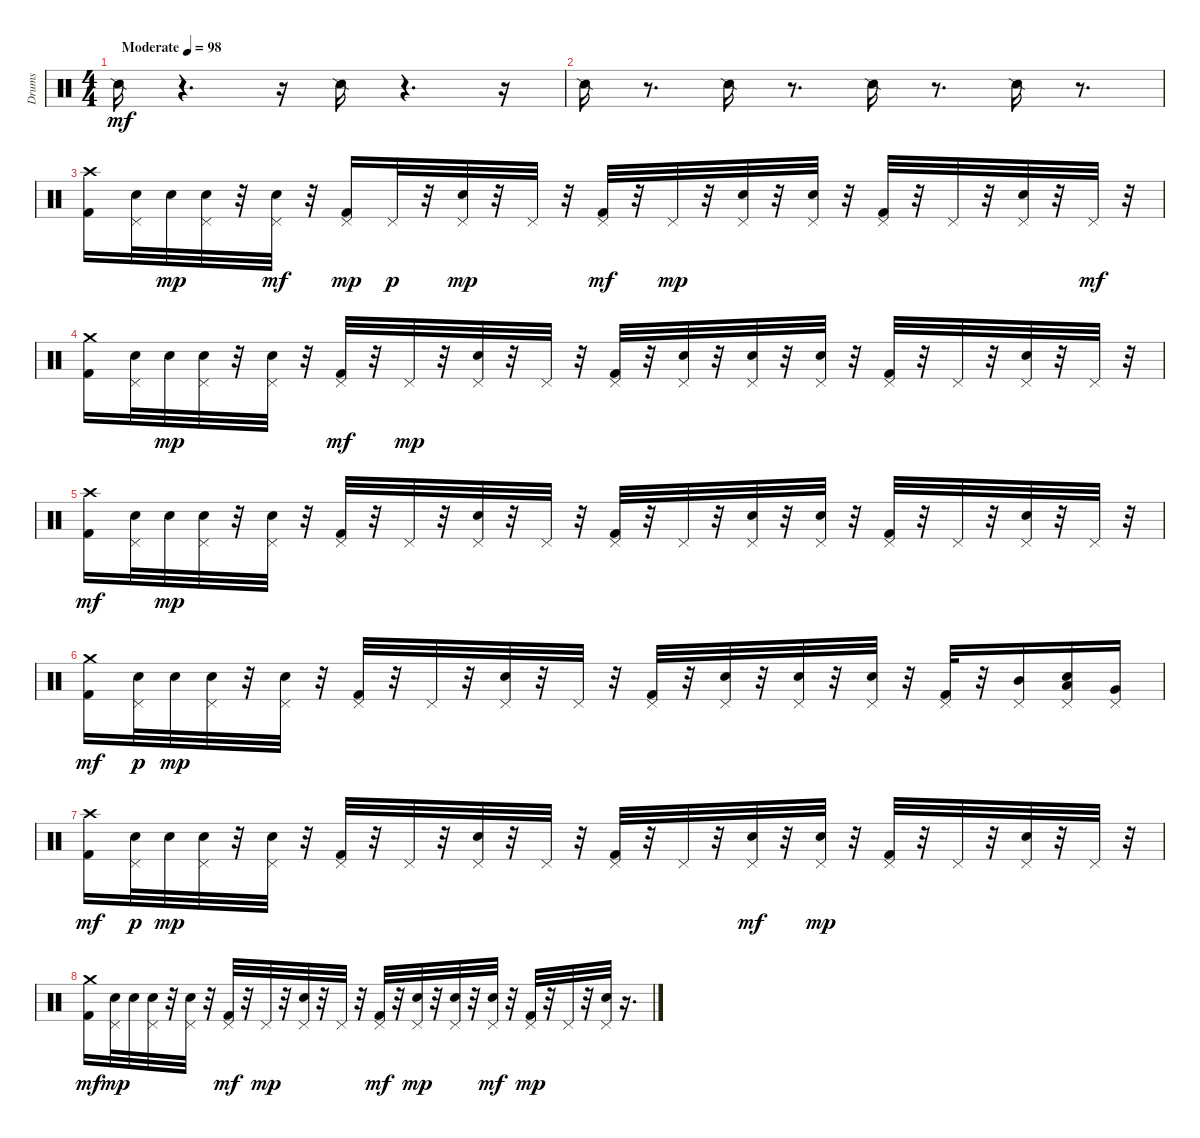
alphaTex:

\track ("Drums" "Drums") {instrument percussion}
\staff {score}
\articulation defaults
\ts (4 4)
\tempo (98 "Moderate")
\clef neutral
\ks c "Snare (side stick) 2".16{dy mf}
r.4{d} r.16 "Snare (side stick) 2".16 r.4{d} r.16 |
"Snare (side stick) 2".16 r.8{d} "Snare (side stick) 2".16 r.8{d} "Snare (side stick) 2".16 r.8{d} "Snare (side stick) 2".16 r.8{d} |
("Kick (hit) 2" "Crash high (hit)").16 ("Electric Snare (hit)" "Pedal Hi-Hat (hit)").32 "Electric Snare (hit)".32{dy mp} ("Electric Snare (hit)" "Pedal Hi-Hat (hit)").32 r.32 ("Electric Snare (hit)" "Pedal Hi-Hat (hit)").32{dy mf} r.32 ("Kick (hit) 2" "Pedal Hi-Hat (hit)").16{dy mp} "Pedal Hi-Hat (hit)".32{dy p} r.32 ("Electric Snare (hit)" "Pedal Hi-Hat (hit)").32{dy mp} r.32 "Pedal Hi-Hat (hit)".32 r.32 ("Kick (hit) 2" "Pedal Hi-Hat (hit)").32{dy mf} r.32 "Pedal Hi-Hat (hit)".32{dy mp} r.32 ("Electric Snare (hit)" "Pedal Hi-Hat (hit)").32 r.32 ("Electric Snare (hit)" "Pedal Hi-Hat (hit)").32 r.32 ("Kick (hit) 2" "Pedal Hi-Hat (hit)").32 r.32 "Pedal Hi-Hat (hit)".32 r.32 ("Electric Snare (hit)" "Pedal Hi-Hat (hit)").32 r.32 "Pedal Hi-Hat (hit)".32{dy mf} r.32 |
("Kick (hit) 2" "Crash medium (hit)").16 ("Electric Snare (hit)" "Pedal Hi-Hat (hit)").32 "Electric Snare (hit)".32{dy mp} ("Electric Snare (hit)" "Pedal Hi-Hat (hit)").32 r.32 ("Electric Snare (hit)" "Pedal Hi-Hat (hit)").32 r.32 ("Kick (hit) 2" "Pedal Hi-Hat (hit)").32{dy mf} r.32 "Pedal Hi-Hat (hit)".32{dy mp} r.32 ("Electric Snare (hit)" "Pedal Hi-Hat (hit)").32 r.32 "Pedal Hi-Hat (hit)".32 r.32 ("Kick (hit) 2" "Pedal Hi-Hat (hit)").32 r.32 ("Electric Snare (hit)" "Pedal Hi-Hat (hit)").32{volume 12} r.32 ("Electric Snare (hit)" "Pedal Hi-Hat (hit)").32 r.32 ("Electric Snare (hit)" "Pedal Hi-Hat (hit)").32 r.32 ("Kick (hit) 2" "Pedal Hi-Hat (hit)").32 r.32 "Pedal Hi-Hat (hit)".32 r.32 ("Electric Snare (hit)" "Pedal Hi-Hat (hit)").32 r.32 "Pedal Hi-Hat (hit)".32 r.32 |
("Kick (hit) 2" "Crash high (hit)").16{dy mf} ("Electric Snare (hit)" "Pedal Hi-Hat (hit)").32 "Electric Snare (hit)".32{dy mp} ("Electric Snare (hit)" "Pedal Hi-Hat (hit)").32 r.32 ("Electric Snare (hit)" "Pedal Hi-Hat (hit)").32 r.32 ("Kick (hit) 2" "Pedal Hi-Hat (hit)").32 r.32 "Pedal Hi-Hat (hit)".32 r.32 ("Electric Snare (hit)" "Pedal Hi-Hat (hit)").32 r.32 "Pedal Hi-Hat (hit)".32 r.32 ("Kick (hit) 2" "Pedal Hi-Hat (hit)").32 r.32 "Pedal Hi-Hat (hit)".32 r.32 ("Electric Snare (hit)" "Pedal Hi-Hat (hit)").32 r.32 ("Electric Snare (hit)" "Pedal Hi-Hat (hit)").32 r.32 ("Kick (hit) 2" "Pedal Hi-Hat (hit)").32 r.32 "Pedal Hi-Hat (hit)".32 r.32 ("Electric Snare (hit)" "Pedal Hi-Hat (hit)").32 r.32 "Pedal Hi-Hat (hit)".32 r.32 |
("Kick (hit) 2" "Crash medium (hit)").16{dy mf} ("Electric Snare (hit)" "Pedal Hi-Hat (hit)").32{dy p} "Electric Snare (hit)".32{dy mp} ("Electric Snare (hit)" "Pedal Hi-Hat (hit)").32 r.32 ("Electric Snare (hit)" "Pedal Hi-Hat (hit)").32 r.32 ("Kick (hit) 2" "Pedal Hi-Hat (hit)").32 r.32 "Pedal Hi-Hat (hit)".32 r.32 ("Electric Snare (hit)" "Pedal Hi-Hat (hit)").32 r.32 "Pedal Hi-Hat (hit)".32 r.32 ("Kick (hit) 2" "Pedal Hi-Hat (hit)").32 r.32 ("Electric Snare (hit)" "Pedal Hi-Hat (hit)").32 r.32 ("Electric Snare (hit)" "Pedal Hi-Hat (hit)").32 r.32 ("Electric Snare (hit)" "Pedal Hi-Hat (hit)").32 r.32 ("Kick (hit) 2" "Pedal Hi-Hat (hit)").32 r.32 ("Pedal Hi-Hat (hit)" "Mid Tom (hit)").16 ("Electric Snare (hit)" "Pedal Hi-Hat (hit)" "Low Tom (hit)").16 ("Pedal Hi-Hat (hit)" "Very Low Tom (hit)").16 |
("Kick (hit) 2" "Crash high (hit)").16{dy mf} ("Electric Snare (hit)" "Pedal Hi-Hat (hit)").32{dy p} "Electric Snare (hit)".32{dy mp} ("Electric Snare (hit)" "Pedal Hi-Hat (hit)").32 r.32 ("Electric Snare (hit)" "Pedal Hi-Hat (hit)").32 r.32 ("Kick (hit) 2" "Pedal Hi-Hat (hit)").32 r.32 "Pedal Hi-Hat (hit)".32 r.32 ("Electric Snare (hit)" "Pedal Hi-Hat (hit)").32 r.32 "Pedal Hi-Hat (hit)".32 r.32 ("Kick (hit) 2" "Pedal Hi-Hat (hit)").32 r.32 "Pedal Hi-Hat (hit)".32 r.32 ("Electric Snare (hit)" "Pedal Hi-Hat (hit)").32{dy mf} r.32 ("Electric Snare (hit)" "Pedal Hi-Hat (hit)").32{dy mp} r.32 ("Kick (hit) 2" "Pedal Hi-Hat (hit)").32 r.32 "Pedal Hi-Hat (hit)".32 r.32 ("Electric Snare (hit)" "Pedal Hi-Hat (hit)").32 r.32 "Pedal Hi-Hat (hit)".32 r.32 |
("Kick (hit) 2" "Crash medium (hit)").16{dy mf} ("Electric Snare (hit)" "Pedal Hi-Hat (hit)").32{dy mp} "Electric Snare (hit)".32 ("Electric Snare (hit)" "Pedal Hi-Hat (hit)").32 r.32 ("Electric Snare (hit)" "Pedal Hi-Hat (hit)").32 r.32 ("Kick (hit) 2" "Pedal Hi-Hat (hit)").32{dy mf} r.32 "Pedal Hi-Hat (hit)".32{dy mp} r.32 ("Electric Snare (hit)" "Pedal Hi-Hat (hit)").32 r.32 "Pedal Hi-Hat (hit)".32 r.32 ("Kick (hit) 2" "Pedal Hi-Hat (hit)").32{dy mf} r.32 ("Electric Snare (hit)" "Pedal Hi-Hat (hit)").32{dy mp} r.32 ("Electric Snare (hit)" "Pedal Hi-Hat (hit)").32 r.32 ("Electric Snare (hit)" "Pedal Hi-Hat (hit)").32{dy mf} r.32 ("Kick (hit) 2" "Pedal Hi-Hat (hit)").32{dy mp} r.32 "Pedal Hi-Hat (hit)".32 r.32 ("Electric Snare (hit)" "Pedal Hi-Hat (hit)").32 r.16{d}
